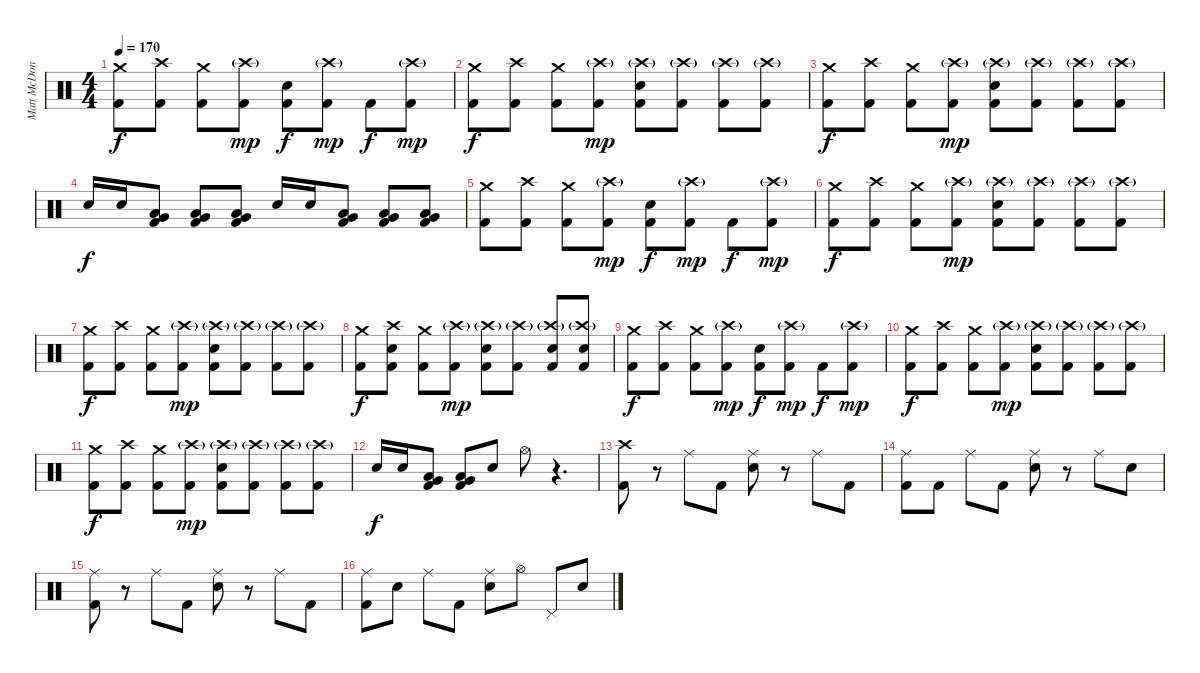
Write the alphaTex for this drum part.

\track ("Matt McDonough" "Matt McDon") {instrument percussion}
\staff {score}
\articulation defaults
\ts (4 4)
\tempo 170
\clef neutral
\ks c
("Crash medium (hit)" "Kick (hit) 2").8{dy f} ("Crash high (hit)" "Kick (hit) 2").8 ("Crash medium (hit)" "Kick (hit) 2").8 ("Crash high (hit)"{g} "Kick (hit) 2").8{dy mp} ("Electric Snare (hit)" "Kick (hit) 2").8{dy f} ("Crash high (hit)"{g} "Kick (hit) 2").8{dy mp} "Kick (hit) 2".8{dy f} ("Crash high (hit)"{g} "Kick (hit) 2").8{dy mp} |
("Crash medium (hit)" "Kick (hit) 2").8{dy f} ("Crash high (hit)" "Kick (hit) 2").8 ("Crash medium (hit)" "Kick (hit) 2").8 ("Crash high (hit)"{g} "Kick (hit) 2").8{dy mp} ("Crash high (hit)"{g} "Electric Snare (hit)" "Kick (hit) 2").8 ("Crash high (hit)"{g} "Kick (hit) 2").8 ("Crash high (hit)"{g} "Kick (hit) 2").8 ("Crash high (hit)"{g} "Kick (hit) 2").8 |
("Crash medium (hit)" "Kick (hit) 2").8{dy f} ("Crash high (hit)" "Kick (hit) 2").8 ("Crash medium (hit)" "Kick (hit) 2").8 ("Crash high (hit)"{g} "Kick (hit) 2").8{dy mp} ("Crash high (hit)"{g} "Electric Snare (hit)" "Kick (hit) 2").8 ("Crash high (hit)"{g} "Kick (hit) 2").8 ("Crash high (hit)"{g} "Kick (hit) 2").8 ("Crash high (hit)"{g} "Kick (hit) 2").8 |
"Electric Snare (hit)".16{dy f} "Electric Snare (hit)".16 ("Very Low Tom (hit)" "Low Floor Tom (hit)" "Kick (hit) 2").8 ("Very Low Tom (hit)" "Low Floor Tom (hit)" "Kick (hit) 2").8 ("Very Low Tom (hit)" "Low Floor Tom (hit)" "Kick (hit) 2").8 "Electric Snare (hit)".16 "Electric Snare (hit)".16 ("Very Low Tom (hit)" "Low Floor Tom (hit)" "Kick (hit) 2").8 ("Very Low Tom (hit)" "Low Floor Tom (hit)" "Kick (hit) 2").8 ("Very Low Tom (hit)" "Low Floor Tom (hit)" "Kick (hit) 2").8 |
("Crash medium (hit)" "Kick (hit) 2").8 ("Crash high (hit)" "Kick (hit) 2").8 ("Crash medium (hit)" "Kick (hit) 2").8 ("Crash high (hit)"{g} "Kick (hit) 2").8{dy mp} ("Electric Snare (hit)" "Kick (hit) 2").8{dy f} ("Crash high (hit)"{g} "Kick (hit) 2").8{dy mp} "Kick (hit) 2".8{dy f} ("Crash high (hit)"{g} "Kick (hit) 2").8{dy mp} |
("Crash medium (hit)" "Kick (hit) 2").8{dy f} ("Crash high (hit)" "Kick (hit) 2").8 ("Crash medium (hit)" "Kick (hit) 2").8 ("Crash high (hit)"{g} "Kick (hit) 2").8{dy mp} ("Crash high (hit)"{g} "Electric Snare (hit)" "Kick (hit) 2").8 ("Crash high (hit)"{g} "Kick (hit) 2").8 ("Crash high (hit)"{g} "Kick (hit) 2").8 ("Crash high (hit)"{g} "Kick (hit) 2").8 |
("Crash medium (hit)" "Kick (hit) 2").8{dy f} ("Crash high (hit)" "Kick (hit) 2").8 ("Crash medium (hit)" "Kick (hit) 2").8 ("Crash high (hit)"{g} "Kick (hit) 2").8{dy mp} ("Crash high (hit)"{g} "Electric Snare (hit)" "Kick (hit) 2").8 ("Crash high (hit)"{g} "Kick (hit) 2").8 ("Crash high (hit)"{g} "Kick (hit) 2").8 ("Crash high (hit)"{g} "Kick (hit) 2").8 |
("Crash medium (hit)" "Kick (hit) 2").8{dy f} ("Crash high (hit)" "Electric Snare (hit)" "Kick (hit) 2").8 ("Crash medium (hit)" "Kick (hit) 2").8 ("Crash high (hit)"{g} "Kick (hit) 2").8{dy mp} ("Crash high (hit)"{g} "Electric Snare (hit)" "Kick (hit) 2").8 ("Crash high (hit)"{g} "Kick (hit) 2").8 ("Crash high (hit)"{g} "Electric Snare (hit)" "Kick (hit) 2").8 ("Crash high (hit)"{g} "Electric Snare (hit)" "Kick (hit) 2").8 |
("Crash medium (hit)" "Kick (hit) 2").8{dy f} ("Crash high (hit)" "Kick (hit) 2").8 ("Crash medium (hit)" "Kick (hit) 2").8 ("Crash high (hit)"{g} "Kick (hit) 2").8{dy mp} ("Electric Snare (hit)" "Kick (hit) 2").8{dy f} ("Crash high (hit)"{g} "Kick (hit) 2").8{dy mp} "Kick (hit) 2".8{dy f} ("Crash high (hit)"{g} "Kick (hit) 2").8{dy mp} |
("Crash medium (hit)" "Kick (hit) 2").8{dy f} ("Crash high (hit)" "Kick (hit) 2").8 ("Crash medium (hit)" "Kick (hit) 2").8 ("Crash high (hit)"{g} "Kick (hit) 2").8{dy mp} ("Crash high (hit)"{g} "Electric Snare (hit)" "Kick (hit) 2").8 ("Crash high (hit)"{g} "Kick (hit) 2").8 ("Crash high (hit)"{g} "Kick (hit) 2").8 ("Crash high (hit)"{g} "Kick (hit) 2").8 |
("Crash medium (hit)" "Kick (hit) 2").8{dy f} ("Crash high (hit)" "Kick (hit) 2").8 ("Crash medium (hit)" "Kick (hit) 2").8 ("Crash high (hit)"{g} "Kick (hit) 2").8{dy mp} ("Crash high (hit)"{g} "Electric Snare (hit)" "Kick (hit) 2").8 ("Crash high (hit)"{g} "Kick (hit) 2").8 ("Crash high (hit)"{g} "Kick (hit) 2").8 ("Crash high (hit)"{g} "Kick (hit) 2").8 |
"Electric Snare (hit)".16{dy f} "Electric Snare (hit)".16 ("Very Low Tom (hit)" "Low Floor Tom (hit)" "Kick (hit) 2").8 ("Very Low Tom (hit)" "Low Floor Tom (hit)" "Kick (hit) 2").8 "Electric Snare (hit)".8 "Hi-Hat (open)".8 r.4{d} |
("Crash high (hit)" "Kick (hit) 2").8 r.8 "Ride (middle)".8 "Kick (hit) 2".8 ("Ride (middle)" "Electric Snare (hit)").8 r.8 "Ride (middle)".8 "Kick (hit) 2".8 |
("Ride (middle)" "Kick (hit) 2").8 "Kick (hit) 2".8 "Ride (middle)".8 "Kick (hit) 2".8 ("Ride (middle)" "Electric Snare (hit)").8 r.8 "Ride (middle)".8 "Electric Snare (hit)".8 |
("Ride (middle)" "Kick (hit) 2").8 r.8 "Ride (middle)".8 "Kick (hit) 2".8 ("Ride (middle)" "Electric Snare (hit)").8 r.8 "Ride (middle)".8 "Kick (hit) 2".8 |
("Ride (middle)" "Kick (hit) 2").8 "Electric Snare (hit)".8 "Ride (middle)".8 "Kick (hit) 2".8 ("Ride (middle)" "Electric Snare (hit)").8 "Hi-Hat (open)".8 "Pedal Hi-Hat (hit)".8 "Electric Snare (hit)".8
